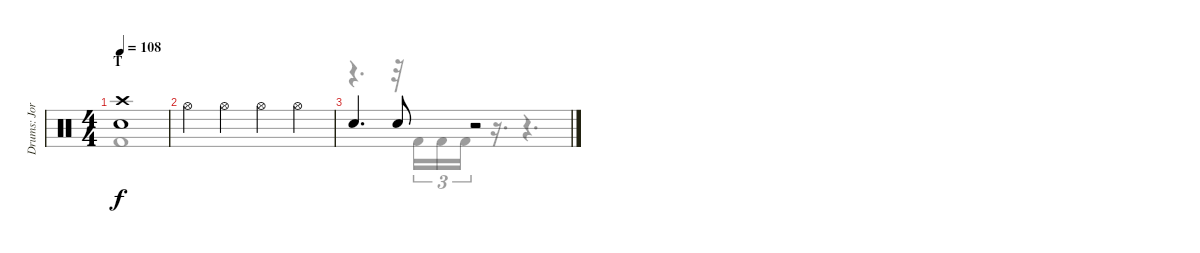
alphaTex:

\track ("Drums: Jorg" "Drums: Jor") {instrument percussion}
\staff {score}
\articulation defaults
\voice
\ts (4 4)
\section ("" "T")
\tempo 108
\clef neutral
\ks c
("Crash high (hit)" "Snare (hit) 2").1{dy f} |
"Hi-Hat (open)".4 "Hi-Hat (open)".4 "Hi-Hat (open)".4 "Hi-Hat (open)".4 |
"Snare (hit) 2".4{d} "Snare (hit) 2".8 r.2
\voice
\clef neutral
\ottava regular
\simile none
\ks c "Kick (hit) 2".1{dy f}
|
|
r.4{d} r.32 "Kick (hit) 2".16{tu (3 2)} "Kick (hit) 2".16{tu (3 2)} "Kick (hit) 2".16{tu (3 2)} r.16{d} r.4{d}
